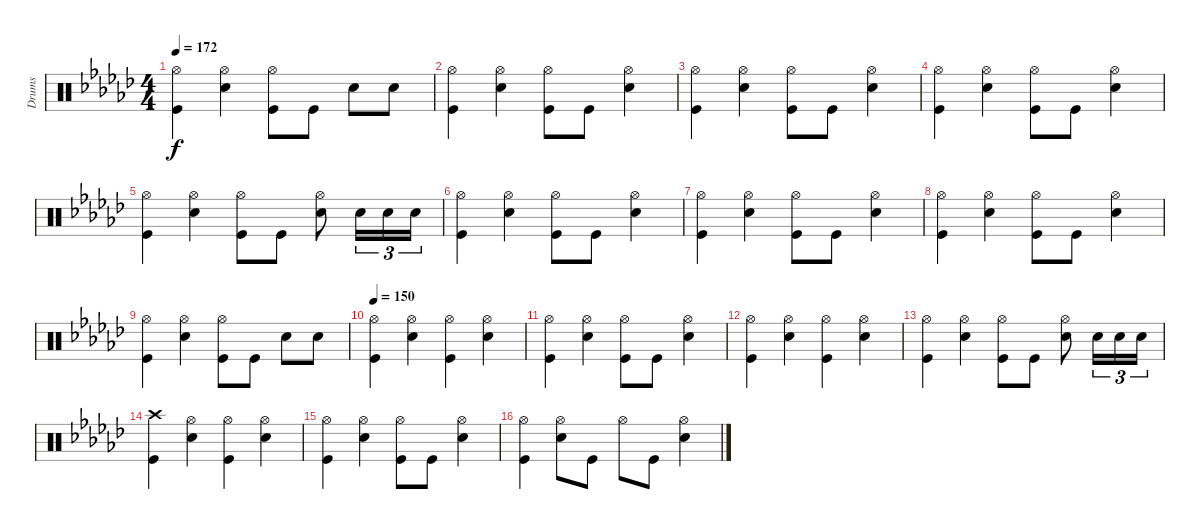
\track ("Drums" "Drums") {instrument percussion}
\staff {score}
\articulation defaults
\ts (4 4)
\tempo 172
\clef neutral
\ks ebminor
("Hi-Hat (open)" "Kick (hit)").4{dy f} ("Hi-Hat (open)" "Snare (hit) 2").4 ("Hi-Hat (open)" "Kick (hit)").8 "Kick (hit)".8 "Snare (hit) 2".8 "Snare (hit) 2".8 |
("Hi-Hat (open)" "Kick (hit)").4 ("Hi-Hat (open)" "Snare (hit) 2").4 ("Hi-Hat (open)" "Kick (hit)").8 "Kick (hit)".8 ("Hi-Hat (open)" "Snare (hit) 2").4 |
("Hi-Hat (open)" "Kick (hit)").4 ("Hi-Hat (open)" "Snare (hit) 2").4 ("Hi-Hat (open)" "Kick (hit)").8 "Kick (hit)".8 ("Hi-Hat (open)" "Snare (hit) 2").4 |
("Hi-Hat (open)" "Kick (hit)").4 ("Hi-Hat (open)" "Snare (hit) 2").4 ("Hi-Hat (open)" "Kick (hit)").8 "Kick (hit)".8 ("Hi-Hat (open)" "Snare (hit) 2").4 |
("Hi-Hat (open)" "Kick (hit)").4 ("Hi-Hat (open)" "Snare (hit) 2").4 ("Hi-Hat (open)" "Kick (hit)").8 "Kick (hit)".8 ("Hi-Hat (open)" "Snare (hit) 2").8 "Snare (hit) 2".16{tu (3 2)} "Snare (hit) 2".16{tu (3 2)} "Snare (hit) 2".16{tu (3 2)} |
("Hi-Hat (open)" "Kick (hit)").4 ("Hi-Hat (open)" "Snare (hit) 2").4 ("Hi-Hat (open)" "Kick (hit)").8 "Kick (hit)".8 ("Hi-Hat (open)" "Snare (hit) 2").4 |
("Hi-Hat (open)" "Kick (hit)").4 ("Hi-Hat (open)" "Snare (hit) 2").4 ("Hi-Hat (open)" "Kick (hit)").8 "Kick (hit)".8 ("Hi-Hat (open)" "Snare (hit) 2").4 |
("Hi-Hat (open)" "Kick (hit)").4 ("Hi-Hat (open)" "Snare (hit) 2").4 ("Hi-Hat (open)" "Kick (hit)").8 "Kick (hit)".8 ("Hi-Hat (open)" "Snare (hit) 2").4 |
("Hi-Hat (open)" "Kick (hit)").4 ("Hi-Hat (open)" "Snare (hit) 2").4 ("Hi-Hat (open)" "Kick (hit)").8 "Kick (hit)".8 "Snare (hit) 2".8 "Snare (hit) 2".8 |
\tempo 150
("Hi-Hat (open)" "Kick (hit)").4 ("Hi-Hat (open)" "Snare (hit) 2").4 ("Hi-Hat (open)" "Kick (hit)").4 ("Hi-Hat (open)" "Snare (hit) 2").4 |
("Hi-Hat (open)" "Kick (hit)").4 ("Hi-Hat (open)" "Snare (hit) 2").4 ("Hi-Hat (open)" "Kick (hit)").8 "Kick (hit)".8 ("Hi-Hat (open)" "Snare (hit) 2").4 |
("Hi-Hat (open)" "Kick (hit)").4 ("Hi-Hat (open)" "Snare (hit) 2").4 ("Hi-Hat (open)" "Kick (hit)").4 ("Hi-Hat (open)" "Snare (hit) 2").4 |
("Hi-Hat (open)" "Kick (hit)").4 ("Hi-Hat (open)" "Snare (hit) 2").4 ("Hi-Hat (open)" "Kick (hit)").8 "Kick (hit)".8 ("Hi-Hat (open)" "Snare (hit) 2").8 "Snare (hit) 2".16{tu (3 2)} "Snare (hit) 2".16{tu (3 2)} "Snare (hit) 2".16{tu (3 2)} |
("Crash high (hit)" "Kick (hit)").4 ("Hi-Hat (open)" "Snare (hit) 2").4 ("Hi-Hat (open)" "Kick (hit)").4 ("Hi-Hat (open)" "Snare (hit) 2").4 |
("Hi-Hat (open)" "Kick (hit)").4 ("Hi-Hat (open)" "Snare (hit) 2").4 ("Hi-Hat (open)" "Kick (hit)").8 "Kick (hit)".8 ("Hi-Hat (open)" "Snare (hit) 2").4 |
("Hi-Hat (open)" "Kick (hit)").4 ("Hi-Hat (open)" "Snare (hit) 2").8 "Kick (hit)".8 "Hi-Hat (open)".8 "Kick (hit)".8 ("Hi-Hat (open)" "Snare (hit) 2").4
